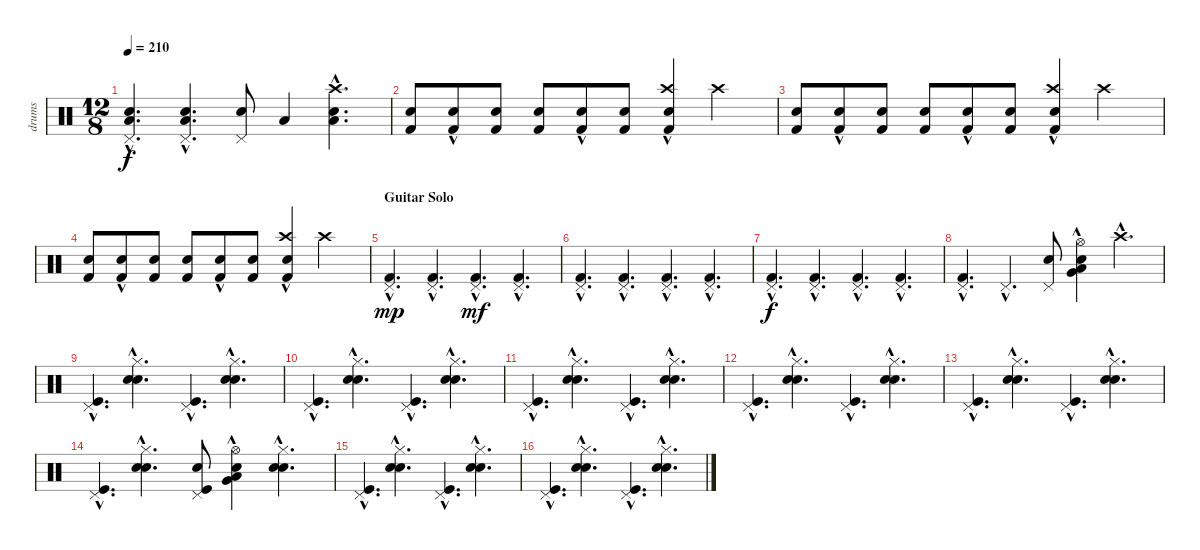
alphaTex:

\track ("drums" "drums") {instrument percussion}
\staff {score}
\articulation defaults
\ts (12 8)
\tempo 210
\clef neutral
\ks c
("Pedal Hi-Hat (hit)"{hac} "Electric Snare (hit)"{hac} "Low Floor Tom (hit)"{hac}).4{d dy f} ("Low Floor Tom (hit)"{hac} "Electric Snare (hit)"{hac} "Pedal Hi-Hat (hit)"{hac}).4{d} ("Pedal Hi-Hat (hit)" "Electric Snare (hit)").8 "Low Floor Tom (hit)".4 ("Crash high (hit)"{hac} "Low Floor Tom (hit)"{hac} "Snare (hit) 2"{hac}).4{d} |
("Electric Snare (hit)" "Kick (hit) 2").8 ("Electric Snare (hit)"{hac} "Kick (hit) 2"{hac}).8 ("Electric Snare (hit)" "Kick (hit) 2").8 ("Electric Snare (hit)" "Kick (hit) 2").8 ("Electric Snare (hit)"{hac} "Kick (hit) 2"{hac}).8 ("Electric Snare (hit)" "Kick (hit) 2").8 ("Electric Snare (hit)"{hac} "Kick (hit) 2"{hac} "Crash high (hit)").4 "Crash high (hit)".2 |
("Electric Snare (hit)" "Kick (hit) 2").8 ("Electric Snare (hit)"{hac} "Kick (hit) 2"{hac}).8 ("Electric Snare (hit)" "Kick (hit) 2").8 ("Electric Snare (hit)" "Kick (hit) 2").8 ("Electric Snare (hit)"{hac} "Kick (hit) 2"{hac}).8 ("Electric Snare (hit)" "Kick (hit) 2").8 ("Electric Snare (hit)"{hac} "Kick (hit) 2"{hac} "Crash high (hit)").4 "Crash high (hit)".2 |
("Electric Snare (hit)" "Kick (hit) 2").8 ("Electric Snare (hit)"{hac} "Kick (hit) 2"{hac}).8 ("Electric Snare (hit)" "Kick (hit) 2").8 ("Electric Snare (hit)" "Kick (hit) 2").8 ("Electric Snare (hit)"{hac} "Kick (hit) 2"{hac}).8 ("Electric Snare (hit)" "Kick (hit) 2").8 ("Electric Snare (hit)"{hac} "Kick (hit) 2"{hac} "Crash high (hit)").4 "Crash high (hit)".2 |
\section ("" "Guitar Solo")
("Pedal Hi-Hat (hit)"{hac} "Kick (hit) 2"{hac}).4{d dy mp} ("Pedal Hi-Hat (hit)"{hac} "Kick (hit) 2"{hac}).4{d} ("Pedal Hi-Hat (hit)"{hac} "Kick (hit) 2"{hac}).4{d dy mf} ("Pedal Hi-Hat (hit)"{hac} "Kick (hit) 2"{hac}).4{d} |
("Pedal Hi-Hat (hit)"{hac} "Kick (hit) 2"{hac}).4{d} ("Pedal Hi-Hat (hit)"{hac} "Kick (hit) 2"{hac}).4{d} ("Pedal Hi-Hat (hit)"{hac} "Kick (hit) 2"{hac}).4{d} ("Pedal Hi-Hat (hit)"{hac} "Kick (hit) 2"{hac}).4{d} |
("Pedal Hi-Hat (hit)"{hac} "Kick (hit) 2"{hac}).4{d dy f} ("Pedal Hi-Hat (hit)"{hac} "Kick (hit) 2"{hac}).4{d} ("Pedal Hi-Hat (hit)"{hac} "Kick (hit) 2"{hac}).4{d} ("Pedal Hi-Hat (hit)"{hac} "Kick (hit) 2"{hac}).4{d} |
("Pedal Hi-Hat (hit)"{hac} "Kick (hit) 2"{hac}).4{d} "Pedal Hi-Hat (hit)"{hac}.4{d} ("Electric Snare (hit)" "Pedal Hi-Hat (hit)").8 ("Snare (hit) 2"{hac} "Very Low Tom (hit)"{hac} "Low Floor Tom (hit)"{hac} "Hi-Hat (open)").4 "Crash high (hit)"{hac}.4{d} |
("Pedal Hi-Hat (hit)"{hac} "Kick (hit)"{hac}).4{d} ("Electric Snare (hit)"{hac} "Snare (hit) 2"{hac} "Hi-Hat (closed)"{hac}).4{d} ("Pedal Hi-Hat (hit)"{hac} "Kick (hit)"{hac}).4{d} ("Electric Snare (hit)"{hac} "Snare (hit) 2"{hac} "Hi-Hat (closed)"{hac}).4{d} |
("Pedal Hi-Hat (hit)"{hac} "Kick (hit)"{hac}).4{d} ("Electric Snare (hit)"{hac} "Snare (hit) 2"{hac} "Hi-Hat (closed)"{hac}).4{d} ("Pedal Hi-Hat (hit)"{hac} "Kick (hit)"{hac}).4{d} ("Electric Snare (hit)"{hac} "Snare (hit) 2"{hac} "Hi-Hat (closed)"{hac}).4{d} |
("Pedal Hi-Hat (hit)"{hac} "Kick (hit)"{hac}).4{d} ("Electric Snare (hit)"{hac} "Snare (hit) 2"{hac} "Hi-Hat (closed)"{hac}).4{d} ("Pedal Hi-Hat (hit)"{hac} "Kick (hit)"{hac}).4{d} ("Electric Snare (hit)"{hac} "Snare (hit) 2"{hac} "Hi-Hat (closed)"{hac}).4{d} |
("Pedal Hi-Hat (hit)"{hac} "Kick (hit)"{hac}).4{d} ("Electric Snare (hit)"{hac} "Snare (hit) 2"{hac} "Hi-Hat (closed)"{hac}).4{d} ("Pedal Hi-Hat (hit)"{hac} "Kick (hit)"{hac}).4{d} ("Electric Snare (hit)"{hac} "Snare (hit) 2"{hac} "Hi-Hat (closed)"{hac}).4{d} |
("Pedal Hi-Hat (hit)"{hac} "Kick (hit)"{hac}).4{d} ("Electric Snare (hit)"{hac} "Snare (hit) 2"{hac} "Hi-Hat (closed)"{hac}).4{d} ("Pedal Hi-Hat (hit)"{hac} "Kick (hit)"{hac}).4{d} ("Electric Snare (hit)"{hac} "Snare (hit) 2"{hac} "Hi-Hat (closed)"{hac}).4{d} |
("Pedal Hi-Hat (hit)"{hac} "Kick (hit)"{hac}).4{d} ("Electric Snare (hit)"{hac} "Snare (hit) 2"{hac} "Hi-Hat (closed)"{hac}).4{d} ("Electric Snare (hit)" "Pedal Hi-Hat (hit)" "Kick (hit)").8 ("Snare (hit) 2"{hac} "Very Low Tom (hit)"{hac} "Low Floor Tom (hit)"{hac} "Hi-Hat (open)").4 ("Snare (hit) 2"{hac} "Electric Snare (hit)"{hac} "Hi-Hat (closed)"{hac}).4{d} |
("Pedal Hi-Hat (hit)"{hac} "Kick (hit)"{hac}).4{d} ("Electric Snare (hit)"{hac} "Snare (hit) 2"{hac} "Hi-Hat (closed)"{hac}).4{d} ("Pedal Hi-Hat (hit)"{hac} "Kick (hit)"{hac}).4{d} ("Electric Snare (hit)"{hac} "Snare (hit) 2"{hac} "Hi-Hat (closed)"{hac}).4{d} |
("Pedal Hi-Hat (hit)"{hac} "Kick (hit)"{hac}).4{d} ("Electric Snare (hit)"{hac} "Snare (hit) 2"{hac} "Hi-Hat (closed)"{hac}).4{d} ("Pedal Hi-Hat (hit)"{hac} "Kick (hit)"{hac}).4{d} ("Electric Snare (hit)"{hac} "Snare (hit) 2"{hac} "Hi-Hat (closed)"{hac}).4{d}
